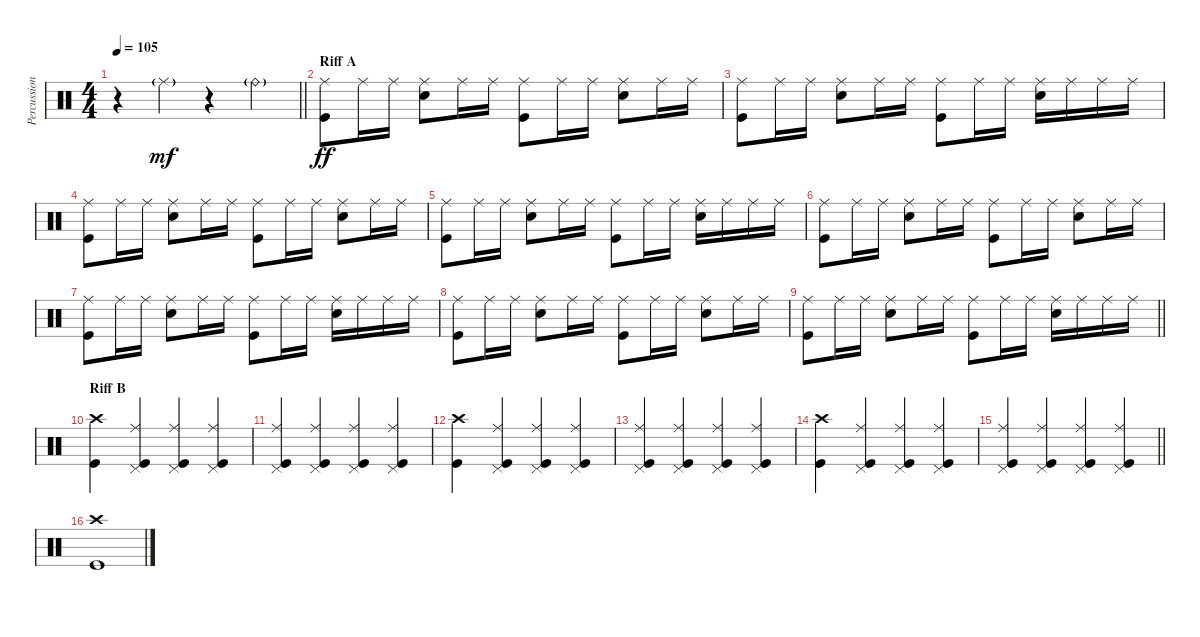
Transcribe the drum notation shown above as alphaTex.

\track ("Percussion" "Percussion") {instrument percussion}
\staff {score}
\articulation defaults
\ts (4 4)
\tempo 105
\clef neutral
\barLineRight lightlight
\ks c
r.4{dy mf} "Ride (middle)"{g}.4 r.4 "Ride (bell)"{g}.4 |
\section ("" "Riff A")
("Kick (hit)" "Ride (middle)").8{dy ff} "Ride (middle)".16 "Ride (middle)".16 ("Snare (hit) 2" "Ride (middle)").8 "Ride (middle)".16 "Ride (middle)".16 ("Kick (hit)" "Ride (middle)").8 "Ride (middle)".16 "Ride (middle)".16 ("Snare (hit) 2" "Ride (middle)").8 "Ride (middle)".16 "Ride (middle)".16 |
("Kick (hit)" "Ride (middle)").8 "Ride (middle)".16 "Ride (middle)".16 ("Snare (hit) 2" "Ride (middle)").8 "Ride (middle)".16 "Ride (middle)".16 ("Kick (hit)" "Ride (middle)").8 "Ride (middle)".16 "Ride (middle)".16 ("Snare (hit) 2" "Ride (middle)").16 "Ride (middle)".16 "Ride (middle)".16 "Ride (middle)".16 |
("Kick (hit)" "Ride (middle)").8 "Ride (middle)".16 "Ride (middle)".16 ("Snare (hit) 2" "Ride (middle)").8 "Ride (middle)".16 "Ride (middle)".16 ("Kick (hit)" "Ride (middle)").8 "Ride (middle)".16 "Ride (middle)".16 ("Snare (hit) 2" "Ride (middle)").8 "Ride (middle)".16 "Ride (middle)".16 |
("Kick (hit)" "Ride (middle)").8 "Ride (middle)".16 "Ride (middle)".16 ("Snare (hit) 2" "Ride (middle)").8 "Ride (middle)".16 "Ride (middle)".16 ("Kick (hit)" "Ride (middle)").8 "Ride (middle)".16 "Ride (middle)".16 ("Snare (hit) 2" "Ride (middle)").16 "Ride (middle)".16 "Ride (middle)".16 "Ride (middle)".16 |
("Kick (hit)" "Ride (middle)").8 "Ride (middle)".16 "Ride (middle)".16 ("Snare (hit) 2" "Ride (middle)").8 "Ride (middle)".16 "Ride (middle)".16 ("Kick (hit)" "Ride (middle)").8 "Ride (middle)".16 "Ride (middle)".16 ("Snare (hit) 2" "Ride (middle)").8 "Ride (middle)".16 "Ride (middle)".16 |
("Kick (hit)" "Ride (middle)").8 "Ride (middle)".16 "Ride (middle)".16 ("Snare (hit) 2" "Ride (middle)").8 "Ride (middle)".16 "Ride (middle)".16 ("Kick (hit)" "Ride (middle)").8 "Ride (middle)".16 "Ride (middle)".16 ("Snare (hit) 2" "Ride (middle)").16 "Ride (middle)".16 "Ride (middle)".16 "Ride (middle)".16 |
("Kick (hit)" "Ride (middle)").8 "Ride (middle)".16 "Ride (middle)".16 ("Snare (hit) 2" "Ride (middle)").8 "Ride (middle)".16 "Ride (middle)".16 ("Kick (hit)" "Ride (middle)").8 "Ride (middle)".16 "Ride (middle)".16 ("Snare (hit) 2" "Ride (middle)").8 "Ride (middle)".16 "Ride (middle)".16 |
\barLineRight lightlight
("Kick (hit)" "Ride (middle)").8 "Ride (middle)".16 "Ride (middle)".16 ("Snare (hit) 2" "Ride (middle)").8 "Ride (middle)".16 "Ride (middle)".16 ("Kick (hit)" "Ride (middle)").8 "Ride (middle)".16 "Ride (middle)".16 ("Snare (hit) 2" "Ride (middle)").16 "Ride (middle)".16 "Ride (middle)".16 "Ride (middle)".16 |
\section ("" "Riff B")
("Kick (hit)" "Crash high (hit)").4 ("Kick (hit)" "Pedal Hi-Hat (hit)" "Ride (middle)").4 ("Kick (hit)" "Pedal Hi-Hat (hit)" "Ride (middle)").4 ("Kick (hit)" "Pedal Hi-Hat (hit)" "Ride (middle)").4 |
("Kick (hit)" "Pedal Hi-Hat (hit)" "Ride (middle)").4 ("Kick (hit)" "Pedal Hi-Hat (hit)" "Ride (middle)").4 ("Kick (hit)" "Pedal Hi-Hat (hit)" "Ride (middle)").4 ("Kick (hit)" "Pedal Hi-Hat (hit)" "Ride (middle)").4 |
("Kick (hit)" "Crash high (hit)").4 ("Kick (hit)" "Pedal Hi-Hat (hit)" "Ride (middle)").4 ("Kick (hit)" "Pedal Hi-Hat (hit)" "Ride (middle)").4 ("Kick (hit)" "Pedal Hi-Hat (hit)" "Ride (middle)").4 |
("Kick (hit)" "Pedal Hi-Hat (hit)" "Ride (middle)").4 ("Kick (hit)" "Pedal Hi-Hat (hit)" "Ride (middle)").4 ("Kick (hit)" "Pedal Hi-Hat (hit)" "Ride (middle)").4 ("Kick (hit)" "Pedal Hi-Hat (hit)" "Ride (middle)").4 |
("Kick (hit)" "Crash high (hit)").4 ("Kick (hit)" "Pedal Hi-Hat (hit)" "Ride (middle)").4 ("Kick (hit)" "Pedal Hi-Hat (hit)" "Ride (middle)").4 ("Kick (hit)" "Pedal Hi-Hat (hit)" "Ride (middle)").4 |
\barLineRight lightlight
("Kick (hit)" "Pedal Hi-Hat (hit)" "Ride (middle)").4 ("Kick (hit)" "Pedal Hi-Hat (hit)" "Ride (middle)").4 ("Kick (hit)" "Pedal Hi-Hat (hit)" "Ride (middle)").4 ("Kick (hit)" "Pedal Hi-Hat (hit)" "Ride (middle)").4 |
\section ("" "")
("Kick (hit)" "Crash high (hit)").1
